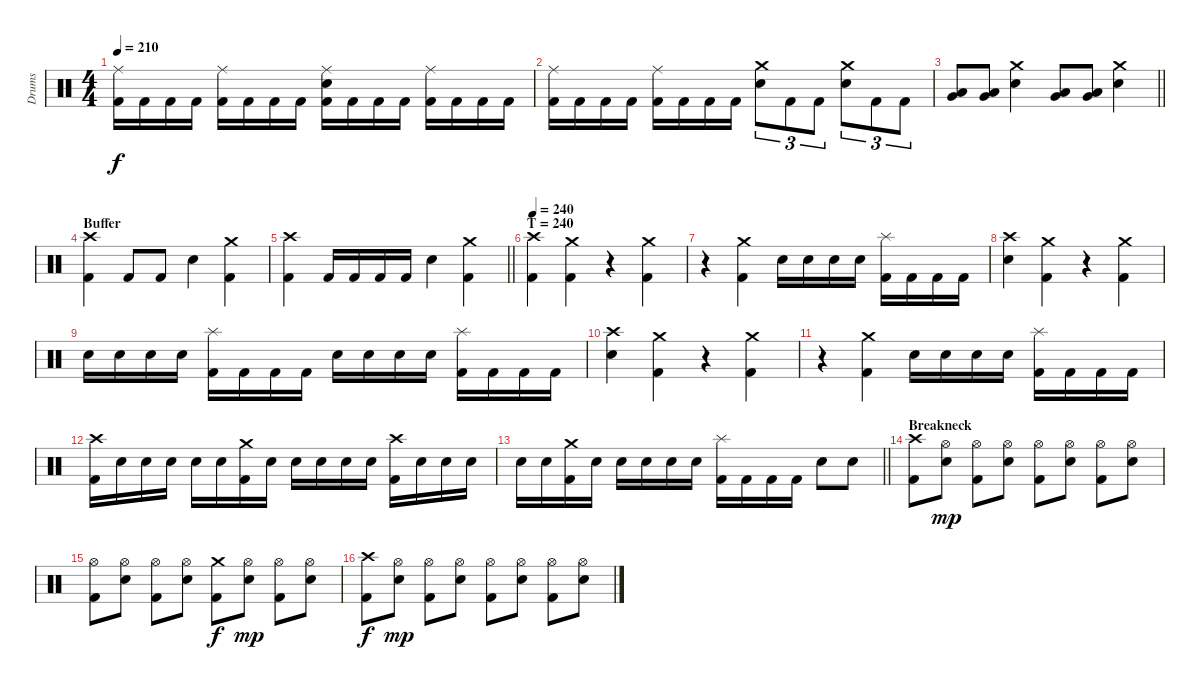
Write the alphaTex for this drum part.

\track ("Drums" "Drums") {instrument percussion}
\staff {score}
\articulation defaults
\ts (4 4)
\tempo 210
\clef neutral
\ks c
("Ride (middle)" "Kick (hit) 2").16{dy f} "Kick (hit) 2".16 "Kick (hit) 2".16 "Kick (hit) 2".16 ("Ride (middle)" "Kick (hit) 2").16 "Kick (hit) 2".16 "Kick (hit) 2".16 "Kick (hit) 2".16 ("Ride (middle)" "Snare (hit) 2" "Kick (hit) 2").16 "Kick (hit) 2".16 "Kick (hit) 2".16 "Kick (hit) 2".16 ("Ride (middle)" "Kick (hit) 2").16 "Kick (hit) 2".16 "Kick (hit) 2".16 "Kick (hit) 2".16 |
("Ride (middle)" "Kick (hit) 2").16 "Kick (hit) 2".16 "Kick (hit) 2".16 "Kick (hit) 2".16 ("Ride (middle)" "Kick (hit) 2").16 "Kick (hit) 2".16 "Kick (hit) 2".16 "Kick (hit) 2".16 ("Crash medium (hit)" "Snare (hit) 2").8{tu (3 2)} "Kick (hit) 2".8{tu (3 2)} "Kick (hit) 2".8{tu (3 2)} ("Crash medium (hit)" "Snare (hit) 2").8{tu (3 2)} "Kick (hit) 2".8{tu (3 2)} "Kick (hit) 2".8{tu (3 2)} |
\barLineRight lightlight
("Very Low Tom (hit)" "Low Tom (hit)").8 ("Very Low Tom (hit)" "Low Tom (hit)").8 ("Crash medium (hit)" "Snare (hit) 2").4 ("Very Low Tom (hit)" "Low Tom (hit)").8 ("Very Low Tom (hit)" "Low Tom (hit)").8 ("Crash medium (hit)" "Snare (hit) 2").4 |
\section ("" "Buffer")
("Crash high (hit)" "Kick (hit) 2").4 "Kick (hit) 2".8 "Kick (hit) 2".8 "Snare (hit) 2".4 ("Crash medium (hit)" "Kick (hit) 2").4 |
\barLineRight lightlight
("Crash high (hit)" "Kick (hit) 2").4 "Kick (hit) 2".16 "Kick (hit) 2".16 "Kick (hit) 2".16 "Kick (hit) 2".16 "Snare (hit) 2".4 ("Crash medium (hit)" "Kick (hit) 2").4 |
\section ("" "T = 240")
\tempo 240
("Crash high (hit)" "Kick (hit) 2").4 ("Crash medium (hit)" "Kick (hit) 2").4 r.4 ("Crash medium (hit)" "Kick (hit) 2").4 |
r.4 ("Crash medium (hit)" "Kick (hit) 2").4 "Snare (hit) 2".16 "Snare (hit) 2".16 "Snare (hit) 2".16 "Snare (hit) 2".16 ("Splash (hit)" "Kick (hit) 2").16 "Kick (hit) 2".16 "Kick (hit) 2".16 "Kick (hit) 2".16 |
("Crash high (hit)" "Snare (hit) 2").4 ("Crash medium (hit)" "Kick (hit) 2").4 r.4 ("Crash medium (hit)" "Kick (hit) 2").4 |
"Snare (hit) 2".16 "Snare (hit) 2".16 "Snare (hit) 2".16 "Snare (hit) 2".16 ("Splash (hit)" "Kick (hit) 2").16 "Kick (hit) 2".16 "Kick (hit) 2".16 "Kick (hit) 2".16 "Snare (hit) 2".16 "Snare (hit) 2".16 "Snare (hit) 2".16 "Snare (hit) 2".16 ("Splash (hit)" "Kick (hit) 2").16 "Kick (hit) 2".16 "Kick (hit) 2".16 "Kick (hit) 2".16 |
("Crash high (hit)" "Snare (hit) 2").4 ("Crash medium (hit)" "Kick (hit) 2").4 r.4 ("Crash medium (hit)" "Kick (hit) 2").4 |
r.4 ("Crash medium (hit)" "Kick (hit) 2").4 "Snare (hit) 2".16 "Snare (hit) 2".16 "Snare (hit) 2".16 "Snare (hit) 2".16 ("Splash (hit)" "Kick (hit) 2").16 "Kick (hit) 2".16 "Kick (hit) 2".16 "Kick (hit) 2".16 |
("Crash high (hit)" "Kick (hit) 2").16 "Snare (hit) 2".16 "Snare (hit) 2".16 "Snare (hit) 2".16 "Snare (hit) 2".16 "Snare (hit) 2".16 ("Crash medium (hit)" "Kick (hit) 2").16 "Snare (hit) 2".16 "Snare (hit) 2".16 "Snare (hit) 2".16 "Snare (hit) 2".16 "Snare (hit) 2".16 ("Crash high (hit)" "Kick (hit) 2").16 "Snare (hit) 2".16 "Snare (hit) 2".16 "Snare (hit) 2".16 |
\barLineRight lightlight "Snare (hit) 2".16 "Snare (hit) 2".16
("Crash medium (hit)" "Kick (hit) 2").16 "Snare (hit) 2".16 "Snare (hit) 2".16 "Snare (hit) 2".16 "Snare (hit) 2".16 "Snare (hit) 2".16 ("Splash (hit)" "Kick (hit) 2").16 "Kick (hit) 2".16 "Kick (hit) 2".16 "Kick (hit) 2".16 "Snare (hit) 2".8 "Snare (hit) 2".8 |
\section ("" "Breakneck")
("Crash high (hit)" "Kick (hit) 2").8 ("Hi-Hat (open)" "Snare (hit) 2").8{dy mp} ("Hi-Hat (open)" "Kick (hit) 2").8 ("Hi-Hat (open)" "Snare (hit) 2").8 ("Hi-Hat (open)" "Kick (hit) 2").8 ("Hi-Hat (open)" "Snare (hit) 2").8 ("Hi-Hat (open)" "Kick (hit) 2").8 ("Hi-Hat (open)" "Snare (hit) 2").8 |
("Hi-Hat (open)" "Kick (hit) 2").8 ("Hi-Hat (open)" "Snare (hit) 2").8 ("Hi-Hat (open)" "Kick (hit) 2").8 ("Hi-Hat (open)" "Snare (hit) 2").8 ("Crash medium (hit)" "Kick (hit) 2").8{dy f} ("Hi-Hat (open)" "Snare (hit) 2").8{dy mp} ("Hi-Hat (open)" "Kick (hit) 2").8 ("Hi-Hat (open)" "Snare (hit) 2").8 |
("Crash high (hit)" "Kick (hit) 2").8{dy f} ("Hi-Hat (open)" "Snare (hit) 2").8{dy mp} ("Hi-Hat (open)" "Kick (hit) 2").8 ("Hi-Hat (open)" "Snare (hit) 2").8 ("Hi-Hat (open)" "Kick (hit) 2").8 ("Hi-Hat (open)" "Snare (hit) 2").8 ("Hi-Hat (open)" "Kick (hit) 2").8 ("Hi-Hat (open)" "Snare (hit) 2").8
